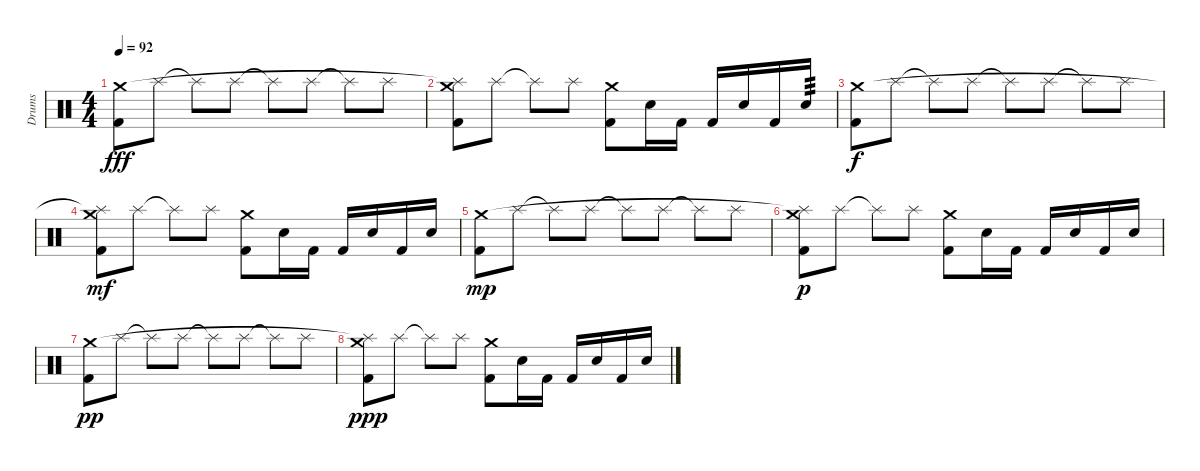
\track ("Drums" "Drums") {instrument percussion}
\staff {score}
\articulation defaults
\ts (4 4)
\tempo 92
\clef neutral
\ks c
("Kick (hit) 2" "Crash medium (hit)").8{dy fff} "Splash (hit)".8 "Splash (hit)"{t}.8 "Splash (hit)".8 "Splash (hit)"{t}.8 "Splash (hit)".8 "Splash (hit)"{t}.8 "Splash (hit)".8 |
("Kick (hit) 2" "Splash (hit)"{t} "Crash medium (hit)").8 "Splash (hit)".8 "Splash (hit)"{t}.8 "Splash (hit)".8 ("Kick (hit) 2" "Crash medium (hit)").8 "Electric Snare (hit)".16 "Kick (hit) 2".16 "Kick (hit) 2".16 "Electric Snare (hit)".16 "Kick (hit) 2".16 "Electric Snare (hit)".16{tp 3} |
("Kick (hit) 2" "Crash medium (hit)").8{dy f} "Splash (hit)".8 "Splash (hit)"{t}.8 "Splash (hit)".8 "Splash (hit)"{t}.8 "Splash (hit)".8 "Splash (hit)"{t}.8 "Splash (hit)".8 |
("Kick (hit) 2" "Splash (hit)"{t} "Crash medium (hit)").8{dy mf} "Splash (hit)".8 "Splash (hit)"{t}.8 "Splash (hit)".8 ("Kick (hit) 2" "Crash medium (hit)").8 "Electric Snare (hit)".16 "Kick (hit) 2".16 "Kick (hit) 2".16 "Electric Snare (hit)".16 "Kick (hit) 2".16 "Electric Snare (hit)".16 |
("Kick (hit) 2" "Crash medium (hit)").8{dy mp} "Splash (hit)".8 "Splash (hit)"{t}.8 "Splash (hit)".8 "Splash (hit)"{t}.8 "Splash (hit)".8 "Splash (hit)"{t}.8 "Splash (hit)".8 |
("Kick (hit) 2" "Splash (hit)"{t} "Crash medium (hit)").8{dy p} "Splash (hit)".8 "Splash (hit)"{t}.8 "Splash (hit)".8 ("Kick (hit) 2" "Crash medium (hit)").8 "Electric Snare (hit)".16 "Kick (hit) 2".16 "Kick (hit) 2".16 "Electric Snare (hit)".16 "Kick (hit) 2".16 "Electric Snare (hit)".16 |
("Kick (hit) 2" "Crash medium (hit)").8{dy pp} "Splash (hit)".8 "Splash (hit)"{t}.8 "Splash (hit)".8 "Splash (hit)"{t}.8 "Splash (hit)".8 "Splash (hit)"{t}.8 "Splash (hit)".8 |
("Kick (hit) 2" "Splash (hit)"{t} "Crash medium (hit)").8{dy ppp} "Splash (hit)".8 "Splash (hit)"{t}.8 "Splash (hit)".8 ("Kick (hit) 2" "Crash medium (hit)").8 "Electric Snare (hit)".16 "Kick (hit) 2".16 "Kick (hit) 2".16 "Electric Snare (hit)".16 "Kick (hit) 2".16 "Electric Snare (hit)".16
